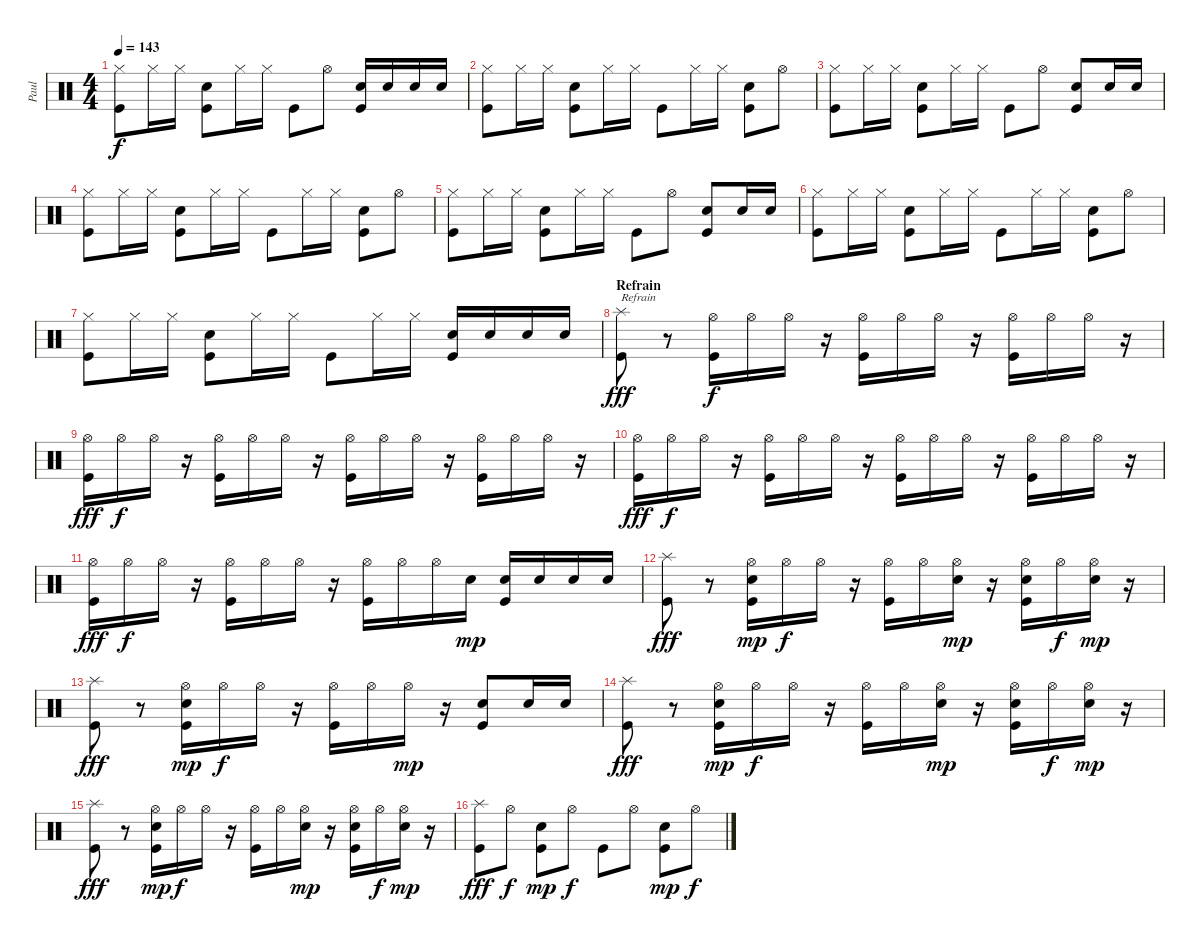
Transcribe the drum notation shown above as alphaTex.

\track ("Paul" "Paul") {instrument percussion}
\staff {score}
\articulation defaults
\ts (4 4)
\tempo 143
\clef neutral
\ks c
("Hi-Hat (closed)" "Kick (hit)").8{dy f} "Hi-Hat (closed)".16 "Hi-Hat (closed)".16 ("Kick (hit)" "Electric Snare (hit)").8 "Hi-Hat (closed)".16 "Hi-Hat (closed)".16 "Kick (hit)".8 "Hi-Hat (open)".8 ("Kick (hit)" "Electric Snare (hit)").16 "Electric Snare (hit)".16 "Electric Snare (hit)".16 "Electric Snare (hit)".16 |
("Hi-Hat (closed)" "Kick (hit)").8 "Hi-Hat (closed)".16 "Hi-Hat (closed)".16 ("Kick (hit)" "Electric Snare (hit)").8 "Hi-Hat (closed)".16 "Hi-Hat (closed)".16 "Kick (hit)".8 "Hi-Hat (closed)".16 "Hi-Hat (closed)".16 ("Kick (hit)" "Electric Snare (hit)").8 "Hi-Hat (open)".8 |
("Hi-Hat (closed)" "Kick (hit)").8 "Hi-Hat (closed)".16 "Hi-Hat (closed)".16 ("Kick (hit)" "Electric Snare (hit)").8 "Hi-Hat (closed)".16 "Hi-Hat (closed)".16 "Kick (hit)".8 "Hi-Hat (open)".8 ("Kick (hit)" "Electric Snare (hit)").8 "Electric Snare (hit)".16 "Electric Snare (hit)".16 |
("Hi-Hat (closed)" "Kick (hit)").8 "Hi-Hat (closed)".16 "Hi-Hat (closed)".16 ("Kick (hit)" "Electric Snare (hit)").8 "Hi-Hat (closed)".16 "Hi-Hat (closed)".16 "Kick (hit)".8 "Hi-Hat (closed)".16 "Hi-Hat (closed)".16 ("Kick (hit)" "Electric Snare (hit)").8 "Hi-Hat (open)".8 |
("Hi-Hat (closed)" "Kick (hit)").8 "Hi-Hat (closed)".16 "Hi-Hat (closed)".16 ("Kick (hit)" "Electric Snare (hit)").8 "Hi-Hat (closed)".16 "Hi-Hat (closed)".16 "Kick (hit)".8 "Hi-Hat (open)".8 ("Kick (hit)" "Electric Snare (hit)").8 "Electric Snare (hit)".16 "Electric Snare (hit)".16 |
("Hi-Hat (closed)" "Kick (hit)").8 "Hi-Hat (closed)".16 "Hi-Hat (closed)".16 ("Kick (hit)" "Electric Snare (hit)").8 "Hi-Hat (closed)".16 "Hi-Hat (closed)".16 "Kick (hit)".8 "Hi-Hat (closed)".16 "Hi-Hat (closed)".16 ("Kick (hit)" "Electric Snare (hit)").8 "Hi-Hat (open)".8 |
("Hi-Hat (closed)" "Kick (hit)").8 "Hi-Hat (closed)".16 "Hi-Hat (closed)".16 ("Kick (hit)" "Electric Snare (hit)").8 "Hi-Hat (closed)".16 "Hi-Hat (closed)".16 "Kick (hit)".8 "Hi-Hat (closed)".16 "Hi-Hat (closed)".16 ("Kick (hit)" "Electric Snare (hit)").16 "Electric Snare (hit)".16 "Electric Snare (hit)".16 "Electric Snare (hit)".16 |
\section ("" "Refrain")
("Kick (hit)" "Splash (hit)").8{txt "Refrain" dy fff} r.8 ("Kick (hit)" "Hi-Hat (open)").16{dy f} "Hi-Hat (open)".16 "Hi-Hat (open)".16 r.16 ("Kick (hit)" "Hi-Hat (open)").16 "Hi-Hat (open)".16 "Hi-Hat (open)".16 r.16 ("Kick (hit)" "Hi-Hat (open)").16 "Hi-Hat (open)".16 "Hi-Hat (open)".16 r.16 |
("Kick (hit)" "Hi-Hat (open)").16{dy fff} "Hi-Hat (open)".16{dy f} "Hi-Hat (open)".16 r.16 ("Kick (hit)" "Hi-Hat (open)").16 "Hi-Hat (open)".16 "Hi-Hat (open)".16 r.16 ("Kick (hit)" "Hi-Hat (open)").16 "Hi-Hat (open)".16 "Hi-Hat (open)".16 r.16 ("Kick (hit)" "Hi-Hat (open)").16 "Hi-Hat (open)".16 "Hi-Hat (open)".16 r.16 |
("Kick (hit)" "Hi-Hat (open)").16{dy fff} "Hi-Hat (open)".16{dy f} "Hi-Hat (open)".16 r.16 ("Kick (hit)" "Hi-Hat (open)").16 "Hi-Hat (open)".16 "Hi-Hat (open)".16 r.16 ("Kick (hit)" "Hi-Hat (open)").16 "Hi-Hat (open)".16 "Hi-Hat (open)".16 r.16 ("Kick (hit)" "Hi-Hat (open)").16 "Hi-Hat (open)".16 "Hi-Hat (open)".16 r.16 |
("Kick (hit)" "Hi-Hat (open)").16{dy fff} "Hi-Hat (open)".16{dy f} "Hi-Hat (open)".16 r.16 ("Kick (hit)" "Hi-Hat (open)").16 "Hi-Hat (open)".16 "Hi-Hat (open)".16 r.16 ("Kick (hit)" "Hi-Hat (open)").16 "Hi-Hat (open)".16 "Hi-Hat (open)".16 "Electric Snare (hit)".16{dy mp} ("Kick (hit)" "Electric Snare (hit)").16 "Electric Snare (hit)".16 "Electric Snare (hit)".16 "Electric Snare (hit)".16 |
("Kick (hit)" "Splash (hit)").8{dy fff} r.8 ("Kick (hit)" "Hi-Hat (open)" "Electric Snare (hit)").16{dy mp} "Hi-Hat (open)".16{dy f} "Hi-Hat (open)".16 r.16 ("Kick (hit)" "Hi-Hat (open)").16 "Hi-Hat (open)".16 ("Hi-Hat (open)" "Electric Snare (hit)").16{dy mp} r.16 ("Kick (hit)" "Hi-Hat (open)" "Electric Snare (hit)").16 "Hi-Hat (open)".16{dy f} ("Hi-Hat (open)" "Electric Snare (hit)").16{dy mp} r.16 |
("Kick (hit)" "Splash (hit)").8{dy fff} r.8 ("Kick (hit)" "Hi-Hat (open)" "Electric Snare (hit)").16{dy mp} "Hi-Hat (open)".16{dy f} "Hi-Hat (open)".16 r.16 ("Kick (hit)" "Hi-Hat (open)").16 "Hi-Hat (open)".16 "Hi-Hat (open)".16{dy mp} r.16 ("Kick (hit)" "Electric Snare (hit)").8 "Electric Snare (hit)".16 "Electric Snare (hit)".16 |
("Kick (hit)" "Splash (hit)").8{dy fff} r.8 ("Kick (hit)" "Hi-Hat (open)" "Electric Snare (hit)").16{dy mp} "Hi-Hat (open)".16{dy f} "Hi-Hat (open)".16 r.16 ("Kick (hit)" "Hi-Hat (open)").16 "Hi-Hat (open)".16 ("Hi-Hat (open)" "Electric Snare (hit)").16{dy mp} r.16 ("Kick (hit)" "Hi-Hat (open)" "Electric Snare (hit)").16 "Hi-Hat (open)".16{dy f} ("Hi-Hat (open)" "Electric Snare (hit)").16{dy mp} r.16 |
("Kick (hit)" "Splash (hit)").8{dy fff} r.8 ("Kick (hit)" "Hi-Hat (open)" "Electric Snare (hit)").16{dy mp} "Hi-Hat (open)".16{dy f} "Hi-Hat (open)".16 r.16 ("Kick (hit)" "Hi-Hat (open)").16 "Hi-Hat (open)".16 ("Hi-Hat (open)" "Electric Snare (hit)").16{dy mp} r.16 ("Kick (hit)" "Hi-Hat (open)" "Electric Snare (hit)").16 "Hi-Hat (open)".16{dy f} ("Hi-Hat (open)" "Electric Snare (hit)").16{dy mp} r.16 |
("Kick (hit)" "Splash (hit)").8{dy fff} "Hi-Hat (open)".8{dy f} ("Kick (hit)" "Electric Snare (hit)").8{dy mp} "Hi-Hat (open)".8{dy f} "Kick (hit)".8 "Hi-Hat (open)".8 ("Kick (hit)" "Electric Snare (hit)").8{dy mp} "Hi-Hat (open)".8{dy f}
